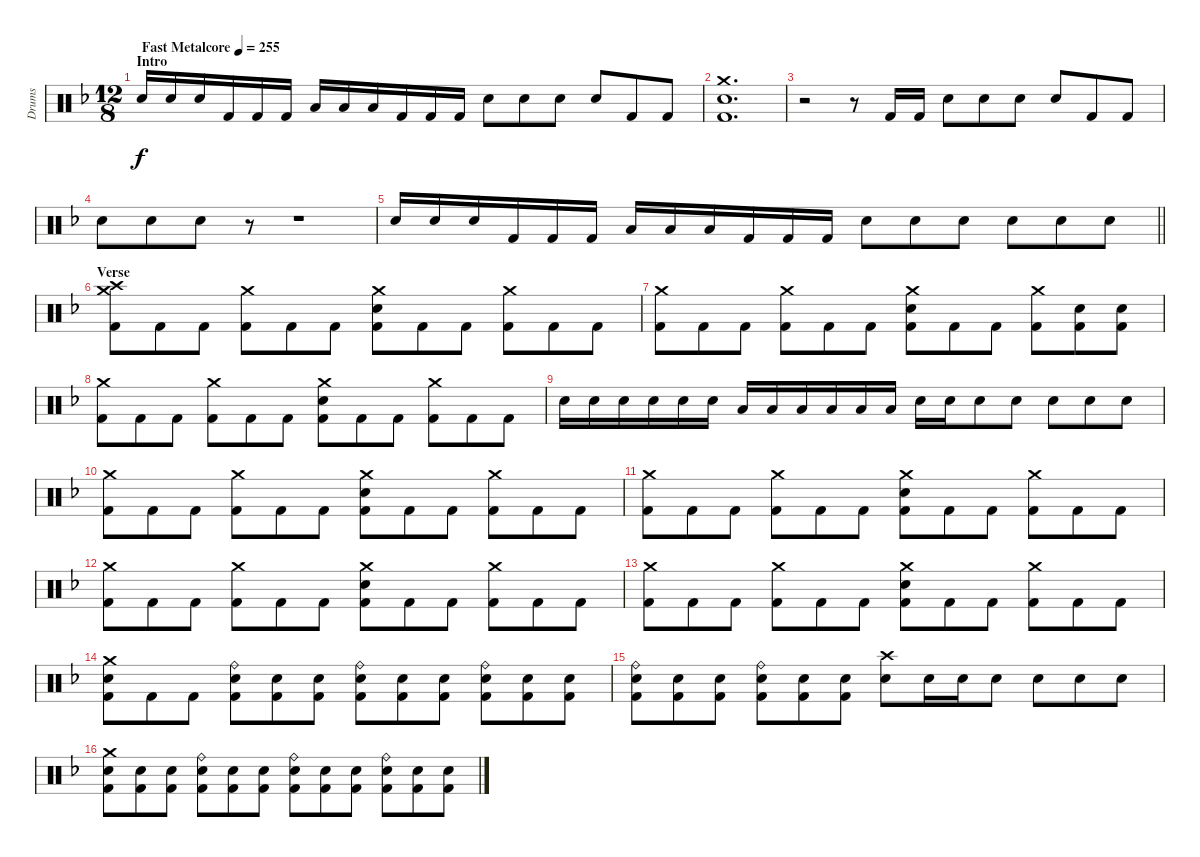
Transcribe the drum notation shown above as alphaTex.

\track ("Drums" "Drums") {instrument percussion}
\staff {score}
\articulation defaults
\ts (12 8)
\section ("" "Intro")
\tempo (255 "Fast Metalcore")
\clef neutral
\ks dminor "Electric Snare (hit)".16{dy f} "Electric Snare (hit)".16 "Electric Snare (hit)".16 "Kick (hit) 2".16 "Kick (hit) 2".16 "Kick (hit) 2".16 "Low Tom (hit)".16 "Low Tom (hit)".16 "Low Tom (hit)".16 "Kick (hit) 2".16 "Kick (hit) 2".16 "Kick (hit) 2".16 "Electric Snare (hit)".8 "Electric Snare (hit)".8 "Electric Snare (hit)".8 "Electric Snare (hit)".8 "Kick (hit) 2".8 "Kick (hit) 2".8
|
("Crash medium (hit)" "Electric Snare (hit)" "Kick (hit) 2").1{d} |
r.2 r.8 "Kick (hit) 2".16 "Kick (hit) 2".16 "Electric Snare (hit)".8 "Electric Snare (hit)".8 "Electric Snare (hit)".8 "Electric Snare (hit)".8 "Kick (hit) 2".8 "Kick (hit) 2".8 |
"Electric Snare (hit)".8 "Electric Snare (hit)".8 "Electric Snare (hit)".8 r.8 r.1 |
\barLineRight lightlight "Electric Snare (hit)".16 "Electric Snare (hit)".16 "Electric Snare (hit)".16 "Kick (hit) 2".16 "Kick (hit) 2".16 "Kick (hit) 2".16 "Low Tom (hit)".16 "Low Tom (hit)".16 "Low Tom (hit)".16 "Kick (hit) 2".16 "Kick (hit) 2".16 "Kick (hit) 2".16 "Electric Snare (hit)".8 "Electric Snare (hit)".8 "Electric Snare (hit)".8 "Electric Snare (hit)".8 "Electric Snare (hit)".8 "Electric Snare (hit)".8
|
\section ("" "Verse")
("Crash medium (hit)" "Crash high (hit)" "Kick (hit) 2").8 "Kick (hit) 2".8 "Kick (hit) 2".8 ("Crash medium (hit)" "Kick (hit) 2").8 "Kick (hit) 2".8 "Kick (hit) 2".8 ("Crash medium (hit)" "Electric Snare (hit)" "Kick (hit) 2").8 "Kick (hit) 2".8 "Kick (hit) 2".8 ("Crash medium (hit)" "Kick (hit) 2").8 "Kick (hit) 2".8 "Kick (hit) 2".8 |
("Crash medium (hit)" "Kick (hit) 2").8 "Kick (hit) 2".8 "Kick (hit) 2".8 ("Crash medium (hit)" "Kick (hit) 2").8 "Kick (hit) 2".8 "Kick (hit) 2".8 ("Crash medium (hit)" "Electric Snare (hit)" "Kick (hit) 2").8 "Kick (hit) 2".8 "Kick (hit) 2".8 ("Crash medium (hit)" "Kick (hit) 2").8 ("Electric Snare (hit)" "Kick (hit) 2").8 ("Electric Snare (hit)" "Kick (hit) 2").8 |
("Crash medium (hit)" "Kick (hit) 2").8 "Kick (hit) 2".8 "Kick (hit) 2".8 ("Crash medium (hit)" "Kick (hit) 2").8 "Kick (hit) 2".8 "Kick (hit) 2".8 ("Crash medium (hit)" "Electric Snare (hit)" "Kick (hit) 2").8 "Kick (hit) 2".8 "Kick (hit) 2".8 ("Crash medium (hit)" "Kick (hit) 2").8 "Kick (hit) 2".8 "Kick (hit) 2".8 |
"Electric Snare (hit)".16 "Electric Snare (hit)".16 "Electric Snare (hit)".16 "Electric Snare (hit)".16 "Electric Snare (hit)".16 "Electric Snare (hit)".16 "Low Tom (hit)".16 "Low Tom (hit)".16 "Low Tom (hit)".16 "Low Tom (hit)".16 "Low Tom (hit)".16 "Low Tom (hit)".16 "Electric Snare (hit)".16 "Electric Snare (hit)".16 "Electric Snare (hit)".8 "Electric Snare (hit)".8 "Electric Snare (hit)".8 "Electric Snare (hit)".8 "Electric Snare (hit)".8 |
("Crash medium (hit)" "Kick (hit) 2").8 "Kick (hit) 2".8 "Kick (hit) 2".8 ("Crash medium (hit)" "Kick (hit) 2").8 "Kick (hit) 2".8 "Kick (hit) 2".8 ("Crash medium (hit)" "Electric Snare (hit)" "Kick (hit) 2").8 "Kick (hit) 2".8 "Kick (hit) 2".8 ("Crash medium (hit)" "Kick (hit) 2").8 "Kick (hit) 2".8 "Kick (hit) 2".8 |
("Crash medium (hit)" "Kick (hit) 2").8 "Kick (hit) 2".8 "Kick (hit) 2".8 ("Crash medium (hit)" "Kick (hit) 2").8 "Kick (hit) 2".8 "Kick (hit) 2".8 ("Crash medium (hit)" "Electric Snare (hit)" "Kick (hit) 2").8 "Kick (hit) 2".8 "Kick (hit) 2".8 ("Crash medium (hit)" "Kick (hit) 2").8 "Kick (hit) 2".8 "Kick (hit) 2".8 |
("Crash medium (hit)" "Kick (hit) 2").8 "Kick (hit) 2".8 "Kick (hit) 2".8 ("Crash medium (hit)" "Kick (hit) 2").8 "Kick (hit) 2".8 "Kick (hit) 2".8 ("Crash medium (hit)" "Electric Snare (hit)" "Kick (hit) 2").8 "Kick (hit) 2".8 "Kick (hit) 2".8 ("Crash medium (hit)" "Kick (hit) 2").8 "Kick (hit) 2".8 "Kick (hit) 2".8 |
("Crash medium (hit)" "Kick (hit) 2").8 "Kick (hit) 2".8 "Kick (hit) 2".8 ("Crash medium (hit)" "Kick (hit) 2").8 "Kick (hit) 2".8 "Kick (hit) 2".8 ("Crash medium (hit)" "Electric Snare (hit)" "Kick (hit) 2").8 "Kick (hit) 2".8 "Kick (hit) 2".8 ("Crash medium (hit)" "Kick (hit) 2").8 "Kick (hit) 2".8 "Kick (hit) 2".8 |
("Crash medium (hit)" "Electric Snare (hit)" "Kick (hit) 2").8 "Kick (hit) 2".8 "Kick (hit) 2".8 ("Ride (bell)" "Electric Snare (hit)" "Kick (hit) 2").8 ("Electric Snare (hit)" "Kick (hit) 2").8 ("Electric Snare (hit)" "Kick (hit) 2").8 ("Ride (bell)" "Electric Snare (hit)" "Kick (hit) 2").8 ("Electric Snare (hit)" "Kick (hit) 2").8 ("Electric Snare (hit)" "Kick (hit) 2").8 ("Ride (bell)" "Electric Snare (hit)" "Kick (hit) 2").8 ("Electric Snare (hit)" "Kick (hit) 2").8 ("Electric Snare (hit)" "Kick (hit) 2").8 |
("Ride (bell)" "Electric Snare (hit)" "Kick (hit) 2").8 ("Electric Snare (hit)" "Kick (hit) 2").8 ("Electric Snare (hit)" "Kick (hit) 2").8 ("Ride (bell)" "Electric Snare (hit)" "Kick (hit) 2").8 ("Electric Snare (hit)" "Kick (hit) 2").8 ("Electric Snare (hit)" "Kick (hit) 2").8 ("Crash high (hit)" "Electric Snare (hit)").8 "Electric Snare (hit)".16 "Electric Snare (hit)".16 "Electric Snare (hit)".8 "Electric Snare (hit)".8 "Electric Snare (hit)".8 "Electric Snare (hit)".8 |
("Crash medium (hit)" "Electric Snare (hit)" "Kick (hit) 2").8 ("Electric Snare (hit)" "Kick (hit) 2").8 ("Electric Snare (hit)" "Kick (hit) 2").8 ("Ride (bell)" "Electric Snare (hit)" "Kick (hit) 2").8 ("Electric Snare (hit)" "Kick (hit) 2").8 ("Electric Snare (hit)" "Kick (hit) 2").8 ("Ride (bell)" "Electric Snare (hit)" "Kick (hit) 2").8 ("Electric Snare (hit)" "Kick (hit) 2").8 ("Electric Snare (hit)" "Kick (hit) 2").8 ("Ride (bell)" "Electric Snare (hit)" "Kick (hit) 2").8 ("Electric Snare (hit)" "Kick (hit) 2").8 ("Electric Snare (hit)" "Kick (hit) 2").8
